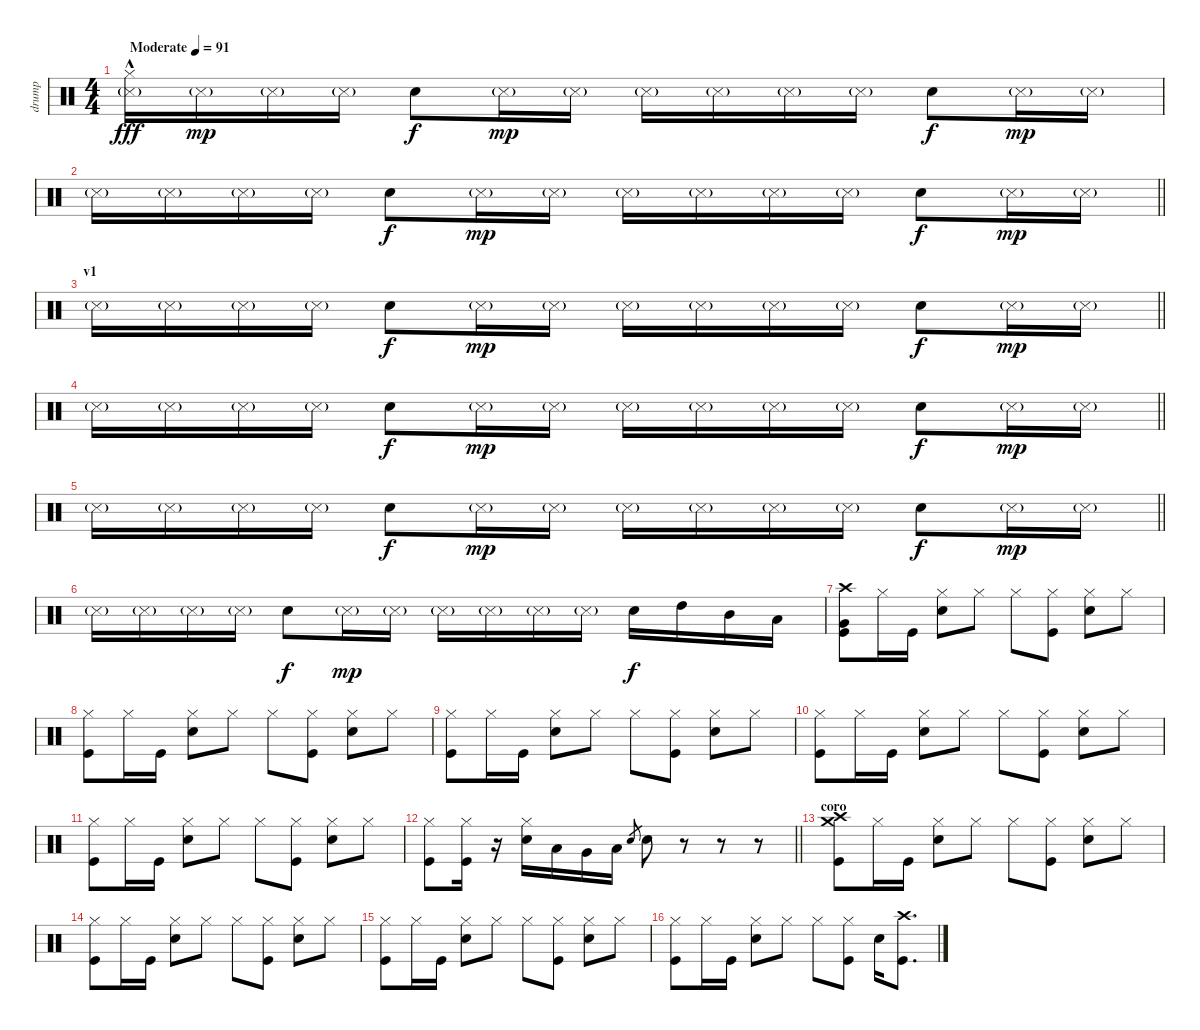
\track ("drump" "drump") {instrument percussion}
\staff {score}
\articulation defaults
\ts (4 4)
\tempo (91 "Moderate")
\clef neutral
\ks c
("Snare (side stick) 3"{g} "Hi-Hat (closed)"{hac}).16{dy fff} "Snare (side stick) 3"{g}.16{dy mp} "Snare (side stick) 3"{g}.16 "Snare (side stick) 3"{g}.16 "Snare (hit) 2".8{dy f} "Snare (side stick) 3"{g}.16{dy mp} "Snare (side stick) 3"{g}.16 "Snare (side stick) 3"{g}.16 "Snare (side stick) 3"{g}.16 "Snare (side stick) 3"{g}.16 "Snare (side stick) 3"{g}.16 "Snare (hit) 2".8{dy f} "Snare (side stick) 3"{g}.16{dy mp} "Snare (side stick) 3"{g}.16 |
\barLineRight lightlight "Snare (side stick) 3"{g}.16 "Snare (side stick) 3"{g}.16 "Snare (side stick) 3"{g}.16 "Snare (side stick) 3"{g}.16 "Snare (hit) 2".8{dy f} "Snare (side stick) 3"{g}.16{dy mp} "Snare (side stick) 3"{g}.16 "Snare (side stick) 3"{g}.16 "Snare (side stick) 3"{g}.16 "Snare (side stick) 3"{g}.16 "Snare (side stick) 3"{g}.16 "Snare (hit) 2".8{dy f} "Snare (side stick) 3"{g}.16{dy mp} "Snare (side stick) 3"{g}.16
|
\section ("" "v1")
\barLineRight lightlight "Snare (side stick) 3"{g}.16 "Snare (side stick) 3"{g}.16 "Snare (side stick) 3"{g}.16 "Snare (side stick) 3"{g}.16 "Snare (hit) 2".8{dy f} "Snare (side stick) 3"{g}.16{dy mp} "Snare (side stick) 3"{g}.16 "Snare (side stick) 3"{g}.16 "Snare (side stick) 3"{g}.16 "Snare (side stick) 3"{g}.16 "Snare (side stick) 3"{g}.16 "Snare (hit) 2".8{dy f} "Snare (side stick) 3"{g}.16{dy mp} "Snare (side stick) 3"{g}.16
|
\barLineRight lightlight "Snare (side stick) 3"{g}.16 "Snare (side stick) 3"{g}.16 "Snare (side stick) 3"{g}.16 "Snare (side stick) 3"{g}.16 "Snare (hit) 2".8{dy f} "Snare (side stick) 3"{g}.16{dy mp} "Snare (side stick) 3"{g}.16 "Snare (side stick) 3"{g}.16 "Snare (side stick) 3"{g}.16 "Snare (side stick) 3"{g}.16 "Snare (side stick) 3"{g}.16 "Snare (hit) 2".8{dy f} "Snare (side stick) 3"{g}.16{dy mp} "Snare (side stick) 3"{g}.16
|
\barLineRight lightlight "Snare (side stick) 3"{g}.16 "Snare (side stick) 3"{g}.16 "Snare (side stick) 3"{g}.16 "Snare (side stick) 3"{g}.16 "Snare (hit) 2".8{dy f} "Snare (side stick) 3"{g}.16{dy mp} "Snare (side stick) 3"{g}.16 "Snare (side stick) 3"{g}.16 "Snare (side stick) 3"{g}.16 "Snare (side stick) 3"{g}.16 "Snare (side stick) 3"{g}.16 "Snare (hit) 2".8{dy f} "Snare (side stick) 3"{g}.16{dy mp} "Snare (side stick) 3"{g}.16
|
"Snare (side stick) 3"{g}.16 "Snare (side stick) 3"{g}.16 "Snare (side stick) 3"{g}.16 "Snare (side stick) 3"{g}.16 "Snare (hit) 2".8{dy f} "Snare (side stick) 3"{g}.16{dy mp} "Snare (side stick) 3"{g}.16 "Snare (side stick) 3"{g}.16 "Snare (side stick) 3"{g}.16 "Snare (side stick) 3"{g}.16 "Snare (side stick) 3"{g}.16 "Snare (hit) 2".16{dy f} "High Tom (hit)".16 "Mid Tom (hit)".16 "Low Tom (hit)".16 |
("Very Low Tom (hit)" "Kick (hit)" "Crash high (hit)").8 "Hi-Hat (closed)".16 "Kick (hit)".16 ("Snare (hit) 2" "Hi-Hat (closed)").8 "Hi-Hat (closed)".8 "Hi-Hat (closed)".8 ("Kick (hit)" "Hi-Hat (closed)").8 ("Snare (hit) 2" "Hi-Hat (closed)").8 "Hi-Hat (closed)".8 |
("Kick (hit)" "Hi-Hat (closed)").8 "Hi-Hat (closed)".16 "Kick (hit)".16 ("Snare (hit) 2" "Hi-Hat (closed)").8 "Hi-Hat (closed)".8 "Hi-Hat (closed)".8 ("Kick (hit)" "Hi-Hat (closed)").8 ("Snare (hit) 2" "Hi-Hat (closed)").8 "Hi-Hat (closed)".8 |
("Kick (hit)" "Hi-Hat (closed)").8 "Hi-Hat (closed)".16 "Kick (hit)".16 ("Snare (hit) 2" "Hi-Hat (closed)").8 "Hi-Hat (closed)".8 "Hi-Hat (closed)".8 ("Kick (hit)" "Hi-Hat (closed)").8 ("Snare (hit) 2" "Hi-Hat (closed)").8 "Hi-Hat (closed)".8 |
("Kick (hit)" "Hi-Hat (closed)").8 "Hi-Hat (closed)".16 "Kick (hit)".16 ("Snare (hit) 2" "Hi-Hat (closed)").8 "Hi-Hat (closed)".8 "Hi-Hat (closed)".8 ("Kick (hit)" "Hi-Hat (closed)").8 ("Snare (hit) 2" "Hi-Hat (closed)").8 "Hi-Hat (closed)".8 |
("Kick (hit)" "Hi-Hat (closed)").8 "Hi-Hat (closed)".16 "Kick (hit)".16 ("Snare (hit) 2" "Hi-Hat (closed)").8 "Hi-Hat (closed)".8 "Hi-Hat (closed)".8 ("Kick (hit)" "Hi-Hat (closed)").8 ("Snare (hit) 2" "Hi-Hat (closed)").8 "Hi-Hat (closed)".8 |
\barLineRight lightlight
("Kick (hit)" "Hi-Hat (closed)").8 ("Kick (hit)" "Hi-Hat (closed)").16 r.16 ("Snare (hit) 2" "Hi-Hat (closed)").16 "Low Floor Tom (hit)".16 "Very Low Tom (hit)".16 "Low Tom (hit)".16 "Snare (hit) 2".8{gr} "Snare (hit) 2".8 r.8 r.8 r.8 |
\section ("" "coro")
("Kick (hit)" "Crash high (hit)" "Crash medium (hit)").8 "Hi-Hat (closed)".16 "Kick (hit)".16 ("Snare (hit) 2" "Hi-Hat (closed)").8 "Hi-Hat (closed)".8 "Hi-Hat (closed)".8 ("Kick (hit)" "Hi-Hat (closed)").8 ("Snare (hit) 2" "Hi-Hat (closed)").8 "Hi-Hat (closed)".8 |
("Kick (hit)" "Hi-Hat (closed)").8 "Hi-Hat (closed)".16 "Kick (hit)".16 ("Snare (hit) 2" "Hi-Hat (closed)").8 "Hi-Hat (closed)".8 "Hi-Hat (closed)".8 ("Kick (hit)" "Hi-Hat (closed)").8 ("Snare (hit) 2" "Hi-Hat (closed)").8 "Hi-Hat (closed)".8 |
("Kick (hit)" "Hi-Hat (closed)").8 "Hi-Hat (closed)".16 "Kick (hit)".16 ("Snare (hit) 2" "Hi-Hat (closed)").8 "Hi-Hat (closed)".8 "Hi-Hat (closed)".8 ("Kick (hit)" "Hi-Hat (closed)").8 ("Snare (hit) 2" "Hi-Hat (closed)").8 "Hi-Hat (closed)".8 |
("Kick (hit)" "Hi-Hat (closed)").8 "Hi-Hat (closed)".16 "Kick (hit)".16 ("Snare (hit) 2" "Hi-Hat (closed)").8 "Hi-Hat (closed)".8 "Hi-Hat (closed)".8 ("Kick (hit)" "Hi-Hat (closed)").8 "Snare (hit) 2".16 ("Kick (hit)" "Crash high (hit)").8{d}
